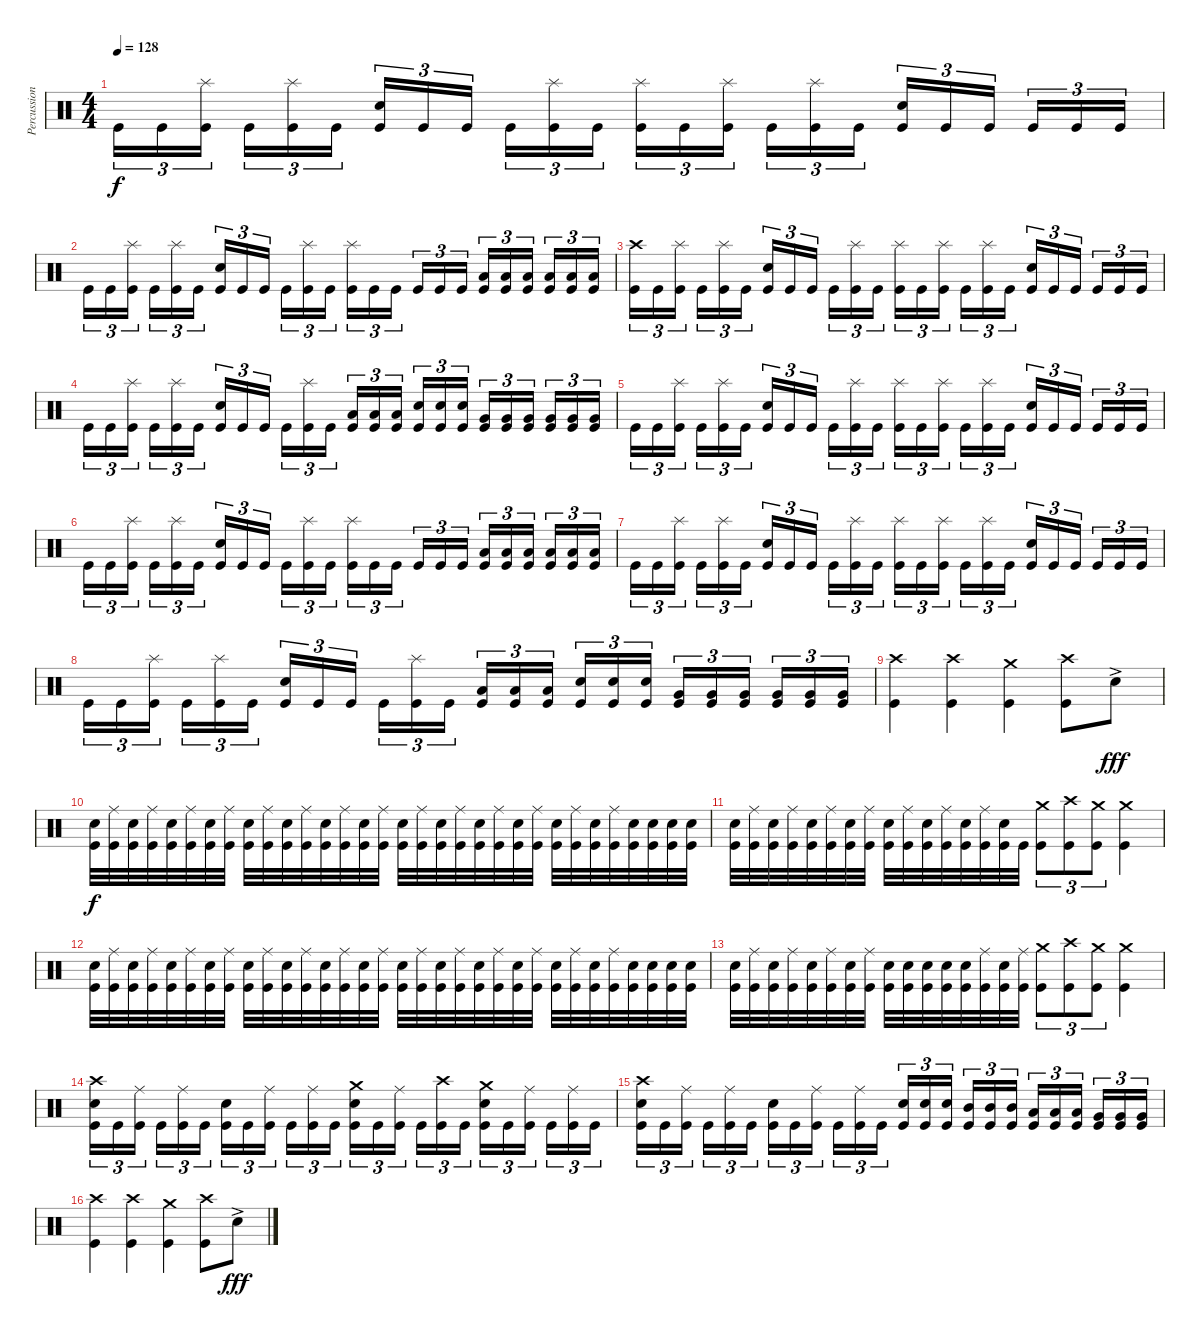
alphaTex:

\track ("Percussion" "Percussion") {instrument percussion}
\staff {score}
\articulation defaults
\ts (4 4)
\tempo 128
\clef neutral
\ks c "Kick (hit)".16{tu (3 2) dy f} "Kick (hit)".16{tu (3 2)}
("Splash (hit)" "Kick (hit)").16{tu (3 2)} "Kick (hit)".16{tu (3 2)} ("Splash (hit)" "Kick (hit)").16{tu (3 2)} "Kick (hit)".16{tu (3 2)} ("Electric Snare (hit)" "Kick (hit)").16{tu (3 2)} "Kick (hit)".16{tu (3 2)} "Kick (hit)".16{tu (3 2)} "Kick (hit)".16{tu (3 2)} ("Splash (hit)" "Kick (hit)").16{tu (3 2)} "Kick (hit)".16{tu (3 2)} ("Splash (hit)" "Kick (hit)").16{tu (3 2)} "Kick (hit)".16{tu (3 2)} ("Splash (hit)" "Kick (hit)").16{tu (3 2)} "Kick (hit)".16{tu (3 2)} ("Splash (hit)" "Kick (hit)").16{tu (3 2)} "Kick (hit)".16{tu (3 2)} ("Electric Snare (hit)" "Kick (hit)").16{tu (3 2)} "Kick (hit)".16{tu (3 2)} "Kick (hit)".16{tu (3 2)} "Kick (hit)".16{tu (3 2)} "Kick (hit)".16{tu (3 2)} "Kick (hit)".16{tu (3 2)} |
"Kick (hit)".16{tu (3 2)} "Kick (hit)".16{tu (3 2)} ("Splash (hit)" "Kick (hit)").16{tu (3 2)} "Kick (hit)".16{tu (3 2)} ("Splash (hit)" "Kick (hit)").16{tu (3 2)} "Kick (hit)".16{tu (3 2)} ("Electric Snare (hit)" "Kick (hit)").16{tu (3 2)} "Kick (hit)".16{tu (3 2)} "Kick (hit)".16{tu (3 2)} "Kick (hit)".16{tu (3 2)} ("Splash (hit)" "Kick (hit)").16{tu (3 2)} "Kick (hit)".16{tu (3 2)} ("Splash (hit)" "Kick (hit)").16{tu (3 2)} "Kick (hit)".16{tu (3 2)} "Kick (hit)".16{tu (3 2)} "Kick (hit)".16{tu (3 2)} "Kick (hit)".16{tu (3 2)} "Kick (hit)".16{tu (3 2)} ("Low Tom (hit)" "Kick (hit)").16{tu (3 2)} ("Low Tom (hit)" "Kick (hit)").16{tu (3 2)} ("Low Tom (hit)" "Kick (hit)").16{tu (3 2)} ("Low Tom (hit)" "Kick (hit)").16{tu (3 2)} ("Low Tom (hit)" "Kick (hit)").16{tu (3 2)} ("Low Tom (hit)" "Kick (hit)").16{tu (3 2)} |
("Crash high (hit)" "Kick (hit)").16{tu (3 2)} "Kick (hit)".16{tu (3 2)} ("Splash (hit)" "Kick (hit)").16{tu (3 2)} "Kick (hit)".16{tu (3 2)} ("Splash (hit)" "Kick (hit)").16{tu (3 2)} "Kick (hit)".16{tu (3 2)} ("Electric Snare (hit)" "Kick (hit)").16{tu (3 2)} "Kick (hit)".16{tu (3 2)} "Kick (hit)".16{tu (3 2)} "Kick (hit)".16{tu (3 2)} ("Splash (hit)" "Kick (hit)").16{tu (3 2)} "Kick (hit)".16{tu (3 2)} ("Splash (hit)" "Kick (hit)").16{tu (3 2)} "Kick (hit)".16{tu (3 2)} ("Splash (hit)" "Kick (hit)").16{tu (3 2)} "Kick (hit)".16{tu (3 2)} ("Splash (hit)" "Kick (hit)").16{tu (3 2)} "Kick (hit)".16{tu (3 2)} ("Electric Snare (hit)" "Kick (hit)").16{tu (3 2)} "Kick (hit)".16{tu (3 2)} "Kick (hit)".16{tu (3 2)} "Kick (hit)".16{tu (3 2)} "Kick (hit)".16{tu (3 2)} "Kick (hit)".16{tu (3 2)} |
"Kick (hit)".16{tu (3 2)} "Kick (hit)".16{tu (3 2)} ("Splash (hit)" "Kick (hit)").16{tu (3 2)} "Kick (hit)".16{tu (3 2)} ("Splash (hit)" "Kick (hit)").16{tu (3 2)} "Kick (hit)".16{tu (3 2)} ("Electric Snare (hit)" "Kick (hit)").16{tu (3 2)} "Kick (hit)".16{tu (3 2)} "Kick (hit)".16{tu (3 2)} "Kick (hit)".16{tu (3 2)} ("Splash (hit)" "Kick (hit)").16{tu (3 2)} "Kick (hit)".16{tu (3 2)} ("Low Tom (hit)" "Kick (hit)").16{tu (3 2)} ("Low Tom (hit)" "Kick (hit)").16{tu (3 2)} ("Low Tom (hit)" "Kick (hit)").16{tu (3 2)} ("Electric Snare (hit)" "Kick (hit)").16{tu (3 2)} ("Electric Snare (hit)" "Kick (hit)").16{tu (3 2)} ("Electric Snare (hit)" "Kick (hit)").16{tu (3 2)} ("Very Low Tom (hit)" "Kick (hit)").16{tu (3 2)} ("Very Low Tom (hit)" "Kick (hit)").16{tu (3 2)} ("Very Low Tom (hit)" "Kick (hit)").16{tu (3 2)} ("Very Low Tom (hit)" "Kick (hit)").16{tu (3 2)} ("Very Low Tom (hit)" "Kick (hit)").16{tu (3 2)} ("Very Low Tom (hit)" "Kick (hit)").16{tu (3 2)} |
"Kick (hit)".16{tu (3 2)} "Kick (hit)".16{tu (3 2)} ("Splash (hit)" "Kick (hit)").16{tu (3 2)} "Kick (hit)".16{tu (3 2)} ("Splash (hit)" "Kick (hit)").16{tu (3 2)} "Kick (hit)".16{tu (3 2)} ("Electric Snare (hit)" "Kick (hit)").16{tu (3 2)} "Kick (hit)".16{tu (3 2)} "Kick (hit)".16{tu (3 2)} "Kick (hit)".16{tu (3 2)} ("Splash (hit)" "Kick (hit)").16{tu (3 2)} "Kick (hit)".16{tu (3 2)} ("Splash (hit)" "Kick (hit)").16{tu (3 2)} "Kick (hit)".16{tu (3 2)} ("Splash (hit)" "Kick (hit)").16{tu (3 2)} "Kick (hit)".16{tu (3 2)} ("Splash (hit)" "Kick (hit)").16{tu (3 2)} "Kick (hit)".16{tu (3 2)} ("Electric Snare (hit)" "Kick (hit)").16{tu (3 2)} "Kick (hit)".16{tu (3 2)} "Kick (hit)".16{tu (3 2)} "Kick (hit)".16{tu (3 2)} "Kick (hit)".16{tu (3 2)} "Kick (hit)".16{tu (3 2)} |
"Kick (hit)".16{tu (3 2)} "Kick (hit)".16{tu (3 2)} ("Splash (hit)" "Kick (hit)").16{tu (3 2)} "Kick (hit)".16{tu (3 2)} ("Splash (hit)" "Kick (hit)").16{tu (3 2)} "Kick (hit)".16{tu (3 2)} ("Electric Snare (hit)" "Kick (hit)").16{tu (3 2)} "Kick (hit)".16{tu (3 2)} "Kick (hit)".16{tu (3 2)} "Kick (hit)".16{tu (3 2)} ("Splash (hit)" "Kick (hit)").16{tu (3 2)} "Kick (hit)".16{tu (3 2)} ("Splash (hit)" "Kick (hit)").16{tu (3 2)} "Kick (hit)".16{tu (3 2)} "Kick (hit)".16{tu (3 2)} "Kick (hit)".16{tu (3 2)} "Kick (hit)".16{tu (3 2)} "Kick (hit)".16{tu (3 2)} ("Low Tom (hit)" "Kick (hit)").16{tu (3 2)} ("Low Tom (hit)" "Kick (hit)").16{tu (3 2)} ("Low Tom (hit)" "Kick (hit)").16{tu (3 2)} ("Low Tom (hit)" "Kick (hit)").16{tu (3 2)} ("Low Tom (hit)" "Kick (hit)").16{tu (3 2)} ("Low Tom (hit)" "Kick (hit)").16{tu (3 2)} |
"Kick (hit)".16{tu (3 2)} "Kick (hit)".16{tu (3 2)} ("Splash (hit)" "Kick (hit)").16{tu (3 2)} "Kick (hit)".16{tu (3 2)} ("Splash (hit)" "Kick (hit)").16{tu (3 2)} "Kick (hit)".16{tu (3 2)} ("Electric Snare (hit)" "Kick (hit)").16{tu (3 2)} "Kick (hit)".16{tu (3 2)} "Kick (hit)".16{tu (3 2)} "Kick (hit)".16{tu (3 2)} ("Splash (hit)" "Kick (hit)").16{tu (3 2)} "Kick (hit)".16{tu (3 2)} ("Splash (hit)" "Kick (hit)").16{tu (3 2)} "Kick (hit)".16{tu (3 2)} ("Splash (hit)" "Kick (hit)").16{tu (3 2)} "Kick (hit)".16{tu (3 2)} ("Splash (hit)" "Kick (hit)").16{tu (3 2)} "Kick (hit)".16{tu (3 2)} ("Electric Snare (hit)" "Kick (hit)").16{tu (3 2)} "Kick (hit)".16{tu (3 2)} "Kick (hit)".16{tu (3 2)} "Kick (hit)".16{tu (3 2)} "Kick (hit)".16{tu (3 2)} "Kick (hit)".16{tu (3 2)} |
"Kick (hit)".16{tu (3 2)} "Kick (hit)".16{tu (3 2)} ("Splash (hit)" "Kick (hit)").16{tu (3 2)} "Kick (hit)".16{tu (3 2)} ("Splash (hit)" "Kick (hit)").16{tu (3 2)} "Kick (hit)".16{tu (3 2)} ("Electric Snare (hit)" "Kick (hit)").16{tu (3 2)} "Kick (hit)".16{tu (3 2)} "Kick (hit)".16{tu (3 2)} "Kick (hit)".16{tu (3 2)} ("Splash (hit)" "Kick (hit)").16{tu (3 2)} "Kick (hit)".16{tu (3 2)} ("Low Tom (hit)" "Kick (hit)").16{tu (3 2)} ("Low Tom (hit)" "Kick (hit)").16{tu (3 2)} ("Low Tom (hit)" "Kick (hit)").16{tu (3 2)} ("Electric Snare (hit)" "Kick (hit)").16{tu (3 2)} ("Electric Snare (hit)" "Kick (hit)").16{tu (3 2)} ("Electric Snare (hit)" "Kick (hit)").16{tu (3 2)} ("Very Low Tom (hit)" "Kick (hit)").16{tu (3 2)} ("Very Low Tom (hit)" "Kick (hit)").16{tu (3 2)} ("Very Low Tom (hit)" "Kick (hit)").16{tu (3 2)} ("Very Low Tom (hit)" "Kick (hit)").16{tu (3 2)} ("Very Low Tom (hit)" "Kick (hit)").16{tu (3 2)} ("Very Low Tom (hit)" "Kick (hit)").16{tu (3 2)} |
("Crash high (hit)" "Kick (hit)").4 ("Crash high (hit)" "Kick (hit)").4 ("Crash medium (hit)" "Kick (hit)").4 ("Crash high (hit)" "Kick (hit)").8 "Electric Snare (hit)"{ac}.8{dy fff} |
("Electric Snare (hit)" "Kick (hit)").32{dy f} ("Ride (middle)" "Kick (hit)").32 ("Electric Snare (hit)" "Kick (hit)").32 ("Ride (middle)" "Kick (hit)").32 ("Electric Snare (hit)" "Kick (hit)").32 ("Ride (middle)" "Kick (hit)").32 ("Electric Snare (hit)" "Kick (hit)").32 ("Ride (middle)" "Kick (hit)").32 ("Electric Snare (hit)" "Kick (hit)").32 ("Ride (middle)" "Kick (hit)").32 ("Electric Snare (hit)" "Kick (hit)").32 ("Ride (middle)" "Kick (hit)").32 ("Electric Snare (hit)" "Kick (hit)").32 ("Ride (middle)" "Kick (hit)").32 ("Electric Snare (hit)" "Kick (hit)").32 ("Ride (middle)" "Kick (hit)").32 ("Electric Snare (hit)" "Kick (hit)").32 ("Ride (middle)" "Kick (hit)").32 ("Electric Snare (hit)" "Kick (hit)").32 ("Ride (middle)" "Kick (hit)").32 ("Electric Snare (hit)" "Kick (hit)").32 ("Ride (middle)" "Kick (hit)").32 ("Electric Snare (hit)" "Kick (hit)").32 ("Ride (middle)" "Kick (hit)").32 ("Electric Snare (hit)" "Kick (hit)").32 ("Ride (middle)" "Kick (hit)").32 ("Electric Snare (hit)" "Kick (hit)").32 ("Ride (middle)" "Kick (hit)").32 ("Electric Snare (hit)" "Kick (hit)").32 ("Electric Snare (hit)" "Kick (hit)").32 ("Electric Snare (hit)" "Kick (hit)").32 ("Electric Snare (hit)" "Kick (hit)").32 |
("Electric Snare (hit)" "Kick (hit)").32 ("Ride (middle)" "Kick (hit)").32 ("Electric Snare (hit)" "Kick (hit)").32 ("Ride (middle)" "Kick (hit)").32 ("Electric Snare (hit)" "Kick (hit)").32 ("Ride (middle)" "Kick (hit)").32 ("Electric Snare (hit)" "Kick (hit)").32 ("Ride (middle)" "Kick (hit)").32 ("Electric Snare (hit)" "Kick (hit)").32 ("Ride (middle)" "Kick (hit)").32 ("Electric Snare (hit)" "Kick (hit)").32 ("Ride (middle)" "Kick (hit)").32 ("Electric Snare (hit)" "Kick (hit)").32 ("Ride (middle)" "Kick (hit)").32 ("Electric Snare (hit)" "Kick (hit)").32 "Kick (hit)".32 ("Crash medium (hit)" "Kick (hit)").8{tu (3 2)} ("Crash high (hit)" "Kick (hit)").8{tu (3 2)} ("Crash medium (hit)" "Kick (hit)").8{tu (3 2)} ("Crash medium (hit)" "Kick (hit)").4 |
("Electric Snare (hit)" "Kick (hit)").32 ("Ride (middle)" "Kick (hit)").32 ("Electric Snare (hit)" "Kick (hit)").32 ("Ride (middle)" "Kick (hit)").32 ("Electric Snare (hit)" "Kick (hit)").32 ("Ride (middle)" "Kick (hit)").32 ("Electric Snare (hit)" "Kick (hit)").32 ("Ride (middle)" "Kick (hit)").32 ("Electric Snare (hit)" "Kick (hit)").32 ("Ride (middle)" "Kick (hit)").32 ("Electric Snare (hit)" "Kick (hit)").32 ("Ride (middle)" "Kick (hit)").32 ("Electric Snare (hit)" "Kick (hit)").32 ("Ride (middle)" "Kick (hit)").32 ("Electric Snare (hit)" "Kick (hit)").32 ("Ride (middle)" "Kick (hit)").32 ("Electric Snare (hit)" "Kick (hit)").32 ("Ride (middle)" "Kick (hit)").32 ("Electric Snare (hit)" "Kick (hit)").32 ("Ride (middle)" "Kick (hit)").32 ("Electric Snare (hit)" "Kick (hit)").32 ("Ride (middle)" "Kick (hit)").32 ("Electric Snare (hit)" "Kick (hit)").32 ("Ride (middle)" "Kick (hit)").32 ("Electric Snare (hit)" "Kick (hit)").32 ("Ride (middle)" "Kick (hit)").32 ("Electric Snare (hit)" "Kick (hit)").32 ("Ride (middle)" "Kick (hit)").32 ("Electric Snare (hit)" "Kick (hit)").32 ("Electric Snare (hit)" "Kick (hit)").32 ("Electric Snare (hit)" "Kick (hit)").32 ("Electric Snare (hit)" "Kick (hit)").32 |
("Electric Snare (hit)" "Kick (hit)").32 ("Ride (middle)" "Kick (hit)").32 ("Electric Snare (hit)" "Kick (hit)").32 ("Ride (middle)" "Kick (hit)").32 ("Electric Snare (hit)" "Kick (hit)").32 ("Ride (middle)" "Kick (hit)").32 ("Electric Snare (hit)" "Kick (hit)").32 ("Ride (middle)" "Kick (hit)").32 ("Electric Snare (hit)" "Kick (hit)").32 ("Electric Snare (hit)" "Kick (hit)").32 ("Electric Snare (hit)" "Kick (hit)").32 ("Electric Snare (hit)" "Kick (hit)").32 ("Electric Snare (hit)" "Kick (hit)").32 ("Ride (middle)" "Kick (hit)").32 ("Electric Snare (hit)" "Kick (hit)").32 ("Ride (middle)" "Kick (hit)").32 ("Crash medium (hit)" "Kick (hit)").8{tu (3 2)} ("Crash high (hit)" "Kick (hit)").8{tu (3 2)} ("Crash medium (hit)" "Kick (hit)").8{tu (3 2)} ("Crash medium (hit)" "Kick (hit)").4 |
("Crash high (hit)" "Electric Snare (hit)" "Kick (hit)").16{tu (3 2)} "Kick (hit)".16{tu (3 2)} ("Ride (middle)" "Kick (hit)").16{tu (3 2)} "Kick (hit)".16{tu (3 2)} ("Ride (middle)" "Kick (hit)").16{tu (3 2)} "Kick (hit)".16{tu (3 2)} ("Electric Snare (hit)" "Kick (hit)").16{tu (3 2)} "Kick (hit)".16{tu (3 2)} ("Ride (middle)" "Kick (hit)").16{tu (3 2)} "Kick (hit)".16{tu (3 2)} ("Ride (middle)" "Kick (hit)").16{tu (3 2)} "Kick (hit)".16{tu (3 2)} ("Crash medium (hit)" "Electric Snare (hit)" "Kick (hit)").16{tu (3 2)} "Kick (hit)".16{tu (3 2)} ("Ride (middle)" "Kick (hit)").16{tu (3 2)} "Kick (hit)".16{tu (3 2)} ("Crash high (hit)" "Kick (hit)").16{tu (3 2)} "Kick (hit)".16{tu (3 2)} ("Crash medium (hit)" "Electric Snare (hit)" "Kick (hit)").16{tu (3 2)} "Kick (hit)".16{tu (3 2)} ("Ride (middle)" "Kick (hit)").16{tu (3 2)} "Kick (hit)".16{tu (3 2)} ("Ride (middle)" "Kick (hit)").16{tu (3 2)} "Kick (hit)".16{tu (3 2)} |
("Crash high (hit)" "Electric Snare (hit)" "Kick (hit)").16{tu (3 2)} "Kick (hit)".16{tu (3 2)} ("Ride (middle)" "Kick (hit)").16{tu (3 2)} "Kick (hit)".16{tu (3 2)} ("Ride (middle)" "Kick (hit)").16{tu (3 2)} "Kick (hit)".16{tu (3 2)} ("Electric Snare (hit)" "Kick (hit)").16{tu (3 2)} "Kick (hit)".16{tu (3 2)} ("Ride (middle)" "Kick (hit)").16{tu (3 2)} "Kick (hit)".16{tu (3 2)} ("Ride (middle)" "Kick (hit)").16{tu (3 2)} "Kick (hit)".16{tu (3 2)} ("Electric Snare (hit)" "Kick (hit)").16{tu (3 2)} ("Electric Snare (hit)" "Kick (hit)").16{tu (3 2)} ("Electric Snare (hit)" "Kick (hit)").16{tu (3 2)} ("Mid Tom (hit)" "Kick (hit)").16{tu (3 2)} ("Mid Tom (hit)" "Kick (hit)").16{tu (3 2)} ("Mid Tom (hit)" "Kick (hit)").16{tu (3 2)} ("Low Tom (hit)" "Kick (hit)").16{tu (3 2)} ("Low Tom (hit)" "Kick (hit)").16{tu (3 2)} ("Low Tom (hit)" "Kick (hit)").16{tu (3 2)} ("Very Low Tom (hit)" "Kick (hit)").16{tu (3 2)} ("Very Low Tom (hit)" "Kick (hit)").16{tu (3 2)} ("Very Low Tom (hit)" "Kick (hit)").16{tu (3 2)} |
("Crash high (hit)" "Kick (hit)").4 ("Crash high (hit)" "Kick (hit)").4 ("Crash medium (hit)" "Kick (hit)").4 ("Crash high (hit)" "Kick (hit)").8 "Electric Snare (hit)"{ac}.8{dy fff}
